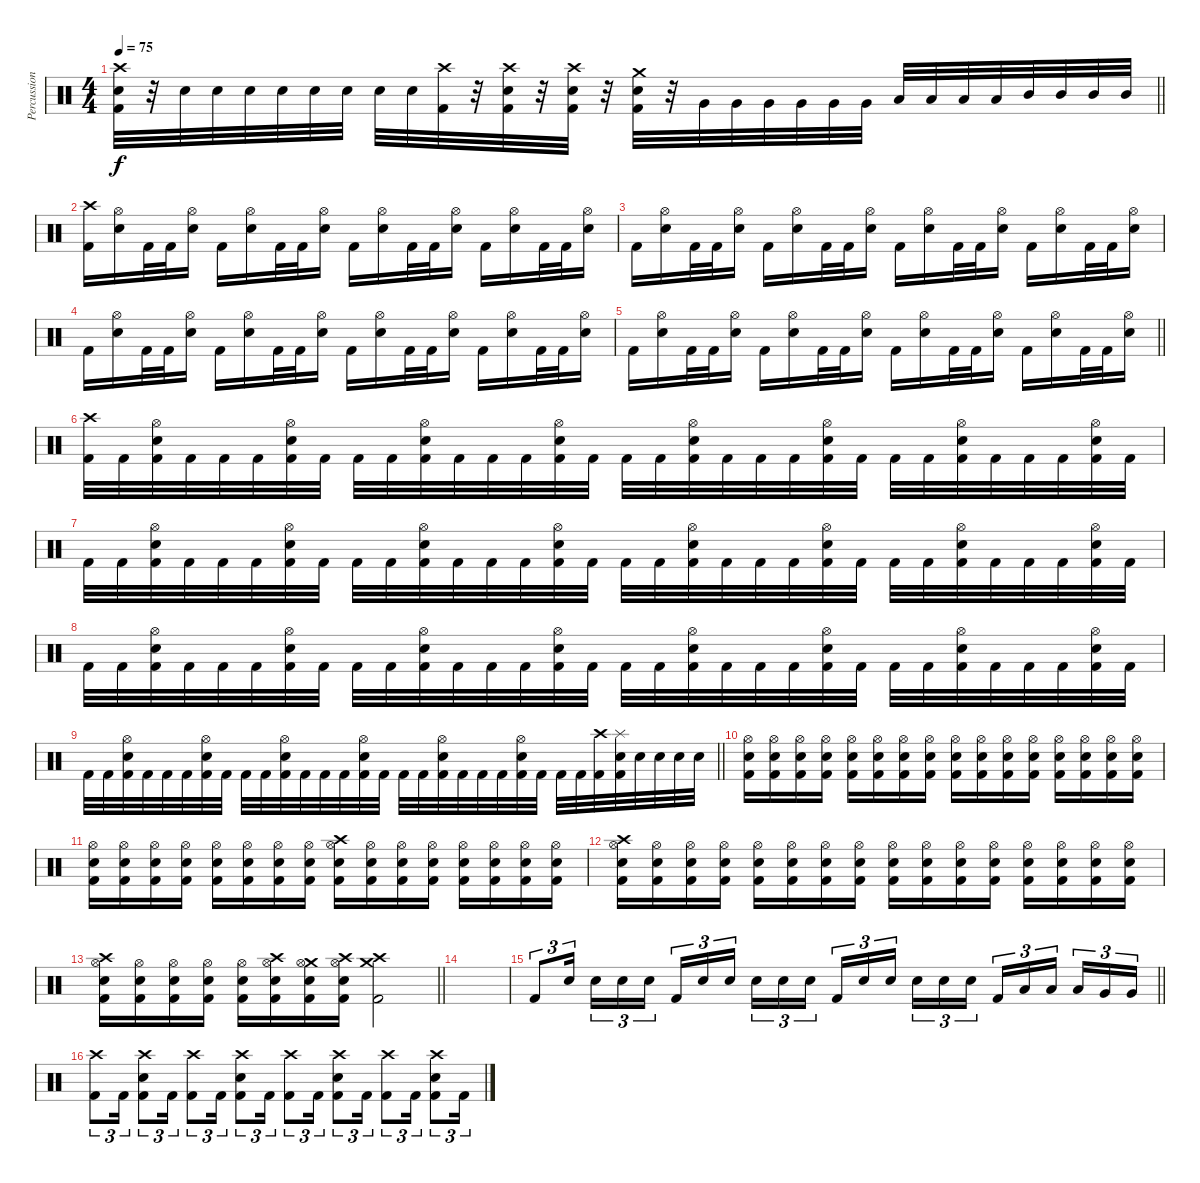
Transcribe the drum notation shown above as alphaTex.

\track ("Percussion" "Percussion") {instrument percussion}
\staff {score}
\articulation defaults
\ts (4 4)
\tempo 75
\clef neutral
\barLineRight lightlight
\ks c
("Crash high (hit)" "Electric Snare (hit)" "Kick (hit) 2").32{dy f} r.32 "Electric Snare (hit)".32 "Electric Snare (hit)".32 "Electric Snare (hit)".32 "Electric Snare (hit)".32 "Electric Snare (hit)".32 "Electric Snare (hit)".32 "Electric Snare (hit)".32 "Electric Snare (hit)".32 ("Crash high (hit)" "Kick (hit) 2").32 r.32 ("Crash high (hit)" "Electric Snare (hit)" "Kick (hit) 2").32 r.32 ("Crash high (hit)" "Electric Snare (hit)" "Kick (hit) 2").32 r.32 ("Crash medium (hit)" "Electric Snare (hit)" "Kick (hit) 2").32 r.32 "Very Low Tom (hit)".32 "Very Low Tom (hit)".32 "Very Low Tom (hit)".32 "Very Low Tom (hit)".32 "Very Low Tom (hit)".32 "Very Low Tom (hit)".32 "Low Tom (hit)".32 "Low Tom (hit)".32 "Low Tom (hit)".32 "Low Tom (hit)".32 "Mid Tom (hit)".32 "Mid Tom (hit)".32 "Mid Tom (hit)".32 "Mid Tom (hit)".32 |
\section ("" "")
("Crash high (hit)" "Kick (hit) 2").16 ("Hi-Hat (open)" "Electric Snare (hit)").16 "Kick (hit) 2".32 "Kick (hit) 2".32 ("Hi-Hat (open)" "Electric Snare (hit)").16 "Kick (hit) 2".16 ("Hi-Hat (open)" "Electric Snare (hit)").16 "Kick (hit) 2".32 "Kick (hit) 2".32 ("Hi-Hat (open)" "Electric Snare (hit)").16 "Kick (hit) 2".16 ("Hi-Hat (open)" "Electric Snare (hit)").16 "Kick (hit) 2".32 "Kick (hit) 2".32 ("Hi-Hat (open)" "Electric Snare (hit)").16 "Kick (hit) 2".16 ("Hi-Hat (open)" "Electric Snare (hit)").16 "Kick (hit) 2".32 "Kick (hit) 2".32 ("Hi-Hat (open)" "Electric Snare (hit)").16 |
"Kick (hit) 2".16 ("Hi-Hat (open)" "Electric Snare (hit)").16 "Kick (hit) 2".32 "Kick (hit) 2".32 ("Hi-Hat (open)" "Electric Snare (hit)").16 "Kick (hit) 2".16 ("Hi-Hat (open)" "Electric Snare (hit)").16 "Kick (hit) 2".32 "Kick (hit) 2".32 ("Hi-Hat (open)" "Electric Snare (hit)").16 "Kick (hit) 2".16 ("Hi-Hat (open)" "Electric Snare (hit)").16 "Kick (hit) 2".32 "Kick (hit) 2".32 ("Hi-Hat (open)" "Electric Snare (hit)").16 "Kick (hit) 2".16 ("Hi-Hat (open)" "Electric Snare (hit)").16 "Kick (hit) 2".32 "Kick (hit) 2".32 ("Hi-Hat (open)" "Electric Snare (hit)").16 |
"Kick (hit) 2".16 ("Hi-Hat (open)" "Electric Snare (hit)").16 "Kick (hit) 2".32 "Kick (hit) 2".32 ("Hi-Hat (open)" "Electric Snare (hit)").16 "Kick (hit) 2".16 ("Hi-Hat (open)" "Electric Snare (hit)").16 "Kick (hit) 2".32 "Kick (hit) 2".32 ("Hi-Hat (open)" "Electric Snare (hit)").16 "Kick (hit) 2".16 ("Hi-Hat (open)" "Electric Snare (hit)").16 "Kick (hit) 2".32 "Kick (hit) 2".32 ("Hi-Hat (open)" "Electric Snare (hit)").16 "Kick (hit) 2".16 ("Hi-Hat (open)" "Electric Snare (hit)").16 "Kick (hit) 2".32 "Kick (hit) 2".32 ("Hi-Hat (open)" "Electric Snare (hit)").16 |
\barLineRight lightlight "Kick (hit) 2".16
("Hi-Hat (open)" "Electric Snare (hit)").16 "Kick (hit) 2".32 "Kick (hit) 2".32 ("Hi-Hat (open)" "Electric Snare (hit)").16 "Kick (hit) 2".16 ("Hi-Hat (open)" "Electric Snare (hit)").16 "Kick (hit) 2".32 "Kick (hit) 2".32 ("Hi-Hat (open)" "Electric Snare (hit)").16 "Kick (hit) 2".16 ("Hi-Hat (open)" "Electric Snare (hit)").16 "Kick (hit) 2".32 "Kick (hit) 2".32 ("Hi-Hat (open)" "Electric Snare (hit)").16 "Kick (hit) 2".16 ("Hi-Hat (open)" "Electric Snare (hit)").16 "Kick (hit) 2".32 "Kick (hit) 2".32 ("Hi-Hat (open)" "Electric Snare (hit)").16 |
\section ("" "")
("Crash high (hit)" "Kick (hit) 2").32 "Kick (hit) 2".32 ("Hi-Hat (open)" "Electric Snare (hit)" "Kick (hit) 2").32 "Kick (hit) 2".32 "Kick (hit) 2".32 "Kick (hit) 2".32 ("Hi-Hat (open)" "Electric Snare (hit)" "Kick (hit) 2").32 "Kick (hit) 2".32 "Kick (hit) 2".32 "Kick (hit) 2".32 ("Hi-Hat (open)" "Electric Snare (hit)" "Kick (hit) 2").32 "Kick (hit) 2".32 "Kick (hit) 2".32 "Kick (hit) 2".32 ("Hi-Hat (open)" "Electric Snare (hit)" "Kick (hit) 2").32 "Kick (hit) 2".32 "Kick (hit) 2".32 "Kick (hit) 2".32 ("Hi-Hat (open)" "Electric Snare (hit)" "Kick (hit) 2").32 "Kick (hit) 2".32 "Kick (hit) 2".32 "Kick (hit) 2".32 ("Hi-Hat (open)" "Electric Snare (hit)" "Kick (hit) 2").32 "Kick (hit) 2".32 "Kick (hit) 2".32 "Kick (hit) 2".32 ("Hi-Hat (open)" "Electric Snare (hit)" "Kick (hit) 2").32 "Kick (hit) 2".32 "Kick (hit) 2".32 "Kick (hit) 2".32 ("Hi-Hat (open)" "Electric Snare (hit)" "Kick (hit) 2").32 "Kick (hit) 2".32 |
"Kick (hit) 2".32 "Kick (hit) 2".32 ("Hi-Hat (open)" "Electric Snare (hit)" "Kick (hit) 2").32 "Kick (hit) 2".32 "Kick (hit) 2".32 "Kick (hit) 2".32 ("Hi-Hat (open)" "Electric Snare (hit)" "Kick (hit) 2").32 "Kick (hit) 2".32 "Kick (hit) 2".32 "Kick (hit) 2".32 ("Hi-Hat (open)" "Electric Snare (hit)" "Kick (hit) 2").32 "Kick (hit) 2".32 "Kick (hit) 2".32 "Kick (hit) 2".32 ("Hi-Hat (open)" "Electric Snare (hit)" "Kick (hit) 2").32 "Kick (hit) 2".32 "Kick (hit) 2".32 "Kick (hit) 2".32 ("Hi-Hat (open)" "Electric Snare (hit)" "Kick (hit) 2").32 "Kick (hit) 2".32 "Kick (hit) 2".32 "Kick (hit) 2".32 ("Hi-Hat (open)" "Electric Snare (hit)" "Kick (hit) 2").32 "Kick (hit) 2".32 "Kick (hit) 2".32 "Kick (hit) 2".32 ("Hi-Hat (open)" "Electric Snare (hit)" "Kick (hit) 2").32 "Kick (hit) 2".32 "Kick (hit) 2".32 "Kick (hit) 2".32 ("Hi-Hat (open)" "Electric Snare (hit)" "Kick (hit) 2").32 "Kick (hit) 2".32 |
"Kick (hit) 2".32 "Kick (hit) 2".32 ("Hi-Hat (open)" "Electric Snare (hit)" "Kick (hit) 2").32 "Kick (hit) 2".32 "Kick (hit) 2".32 "Kick (hit) 2".32 ("Hi-Hat (open)" "Electric Snare (hit)" "Kick (hit) 2").32 "Kick (hit) 2".32 "Kick (hit) 2".32 "Kick (hit) 2".32 ("Hi-Hat (open)" "Electric Snare (hit)" "Kick (hit) 2").32 "Kick (hit) 2".32 "Kick (hit) 2".32 "Kick (hit) 2".32 ("Hi-Hat (open)" "Electric Snare (hit)" "Kick (hit) 2").32 "Kick (hit) 2".32 "Kick (hit) 2".32 "Kick (hit) 2".32 ("Hi-Hat (open)" "Electric Snare (hit)" "Kick (hit) 2").32 "Kick (hit) 2".32 "Kick (hit) 2".32 "Kick (hit) 2".32 ("Hi-Hat (open)" "Electric Snare (hit)" "Kick (hit) 2").32 "Kick (hit) 2".32 "Kick (hit) 2".32 "Kick (hit) 2".32 ("Hi-Hat (open)" "Electric Snare (hit)" "Kick (hit) 2").32 "Kick (hit) 2".32 "Kick (hit) 2".32 "Kick (hit) 2".32 ("Hi-Hat (open)" "Electric Snare (hit)" "Kick (hit) 2").32 "Kick (hit) 2".32 |
\barLineRight lightlight "Kick (hit) 2".32 "Kick (hit) 2".32
("Hi-Hat (open)" "Electric Snare (hit)" "Kick (hit) 2").32 "Kick (hit) 2".32 "Kick (hit) 2".32 "Kick (hit) 2".32 ("Hi-Hat (open)" "Electric Snare (hit)" "Kick (hit) 2").32 "Kick (hit) 2".32 "Kick (hit) 2".32 "Kick (hit) 2".32 ("Hi-Hat (open)" "Electric Snare (hit)" "Kick (hit) 2").32 "Kick (hit) 2".32 "Kick (hit) 2".32 "Kick (hit) 2".32 ("Hi-Hat (open)" "Electric Snare (hit)" "Kick (hit) 2").32 "Kick (hit) 2".32 "Kick (hit) 2".32 "Kick (hit) 2".32 ("Hi-Hat (open)" "Electric Snare (hit)" "Kick (hit) 2").32 "Kick (hit) 2".32 "Kick (hit) 2".32 "Kick (hit) 2".32 ("Hi-Hat (open)" "Electric Snare (hit)" "Kick (hit) 2").32 "Kick (hit) 2".32 "Kick (hit) 2".32 "Kick (hit) 2".32 ("Crash high (hit)" "Kick (hit) 2").32 ("Splash (hit)" "Electric Snare (hit)" "Kick (hit) 2").32 "Electric Snare (hit)".32 "Electric Snare (hit)".32 "Electric Snare (hit)".32 "Electric Snare (hit)".32 |
\section ("" "")
("Hi-Hat (open)" "Electric Snare (hit)" "Kick (hit) 2").16 ("Hi-Hat (open)" "Electric Snare (hit)" "Kick (hit) 2").16 ("Hi-Hat (open)" "Electric Snare (hit)" "Kick (hit) 2").16 ("Hi-Hat (open)" "Electric Snare (hit)" "Kick (hit) 2").16 ("Hi-Hat (open)" "Electric Snare (hit)" "Kick (hit) 2").16 ("Hi-Hat (open)" "Electric Snare (hit)" "Kick (hit) 2").16 ("Hi-Hat (open)" "Electric Snare (hit)" "Kick (hit) 2").16 ("Hi-Hat (open)" "Electric Snare (hit)" "Kick (hit) 2").16 ("Hi-Hat (open)" "Electric Snare (hit)" "Kick (hit) 2").16 ("Hi-Hat (open)" "Electric Snare (hit)" "Kick (hit) 2").16 ("Hi-Hat (open)" "Electric Snare (hit)" "Kick (hit) 2").16 ("Hi-Hat (open)" "Electric Snare (hit)" "Kick (hit) 2").16 ("Hi-Hat (open)" "Electric Snare (hit)" "Kick (hit) 2").16 ("Hi-Hat (open)" "Electric Snare (hit)" "Kick (hit) 2").16 ("Hi-Hat (open)" "Electric Snare (hit)" "Kick (hit) 2").16 ("Hi-Hat (open)" "Electric Snare (hit)" "Kick (hit) 2").16 |
("Hi-Hat (open)" "Electric Snare (hit)" "Kick (hit) 2").16 ("Hi-Hat (open)" "Electric Snare (hit)" "Kick (hit) 2").16 ("Hi-Hat (open)" "Electric Snare (hit)" "Kick (hit) 2").16 ("Hi-Hat (open)" "Electric Snare (hit)" "Kick (hit) 2").16 ("Hi-Hat (open)" "Electric Snare (hit)" "Kick (hit) 2").16 ("Hi-Hat (open)" "Electric Snare (hit)" "Kick (hit) 2").16 ("Hi-Hat (open)" "Electric Snare (hit)" "Kick (hit) 2").16 ("Hi-Hat (open)" "Electric Snare (hit)" "Kick (hit) 2").16 ("Crash high (hit)" "Hi-Hat (open)" "Electric Snare (hit)" "Kick (hit) 2").16 ("Hi-Hat (open)" "Electric Snare (hit)" "Kick (hit) 2").16 ("Hi-Hat (open)" "Electric Snare (hit)" "Kick (hit) 2").16 ("Hi-Hat (open)" "Electric Snare (hit)" "Kick (hit) 2").16 ("Hi-Hat (open)" "Electric Snare (hit)" "Kick (hit) 2").16 ("Hi-Hat (open)" "Electric Snare (hit)" "Kick (hit) 2").16 ("Hi-Hat (open)" "Electric Snare (hit)" "Kick (hit) 2").16 ("Hi-Hat (open)" "Electric Snare (hit)" "Kick (hit) 2").16 |
("Crash high (hit)" "Hi-Hat (open)" "Electric Snare (hit)" "Kick (hit) 2").16 ("Hi-Hat (open)" "Electric Snare (hit)" "Kick (hit) 2").16 ("Hi-Hat (open)" "Electric Snare (hit)" "Kick (hit) 2").16 ("Hi-Hat (open)" "Electric Snare (hit)" "Kick (hit) 2").16 ("Hi-Hat (open)" "Electric Snare (hit)" "Kick (hit) 2").16 ("Hi-Hat (open)" "Electric Snare (hit)" "Kick (hit) 2").16 ("Hi-Hat (open)" "Electric Snare (hit)" "Kick (hit) 2").16 ("Hi-Hat (open)" "Electric Snare (hit)" "Kick (hit) 2").16 ("Hi-Hat (open)" "Electric Snare (hit)" "Kick (hit) 2").16 ("Hi-Hat (open)" "Electric Snare (hit)" "Kick (hit) 2").16 ("Hi-Hat (open)" "Electric Snare (hit)" "Kick (hit) 2").16 ("Hi-Hat (open)" "Electric Snare (hit)" "Kick (hit) 2").16 ("Hi-Hat (open)" "Electric Snare (hit)" "Kick (hit) 2").16 ("Hi-Hat (open)" "Electric Snare (hit)" "Kick (hit) 2").16 ("Hi-Hat (open)" "Electric Snare (hit)" "Kick (hit) 2").16 ("Hi-Hat (open)" "Electric Snare (hit)" "Kick (hit) 2").16 |
\barLineRight lightlight
("Crash high (hit)" "Hi-Hat (open)" "Electric Snare (hit)" "Kick (hit) 2").16 ("Hi-Hat (open)" "Electric Snare (hit)" "Kick (hit) 2").16 ("Hi-Hat (open)" "Electric Snare (hit)" "Kick (hit) 2").16 ("Hi-Hat (open)" "Electric Snare (hit)" "Kick (hit) 2").16 ("Hi-Hat (open)" "Electric Snare (hit)" "Kick (hit) 2").16 ("Crash high (hit)" "Hi-Hat (open)" "Electric Snare (hit)" "Kick (hit) 2").16 ("Crash medium (hit)" "Hi-Hat (open)" "Electric Snare (hit)" "Kick (hit) 2").16 ("Crash high (hit)" "Hi-Hat (open)" "Electric Snare (hit)" "Kick (hit) 2").16 ("Crash high (hit)" "Crash medium (hit)" "Kick (hit) 2").2 |
|
\barLineRight lightlight "Kick (hit) 2".8{tu (3 2)} "Electric Snare (hit)".16{tu (3 2) beam splitsecondary} "Electric Snare (hit)".16{tu (3 2)} "Electric Snare (hit)".16{tu (3 2)} "Electric Snare (hit)".16{tu (3 2)} "Kick (hit) 2".16{tu (3 2)} "Electric Snare (hit)".16{tu (3 2)} "Electric Snare (hit)".16{tu (3 2) beam splitsecondary} "Electric Snare (hit)".16{tu (3 2)} "Electric Snare (hit)".16{tu (3 2)} "Electric Snare (hit)".16{tu (3 2)} "Kick (hit) 2".16{tu (3 2)} "Electric Snare (hit)".16{tu (3 2)} "Electric Snare (hit)".16{tu (3 2) beam splitsecondary} "Electric Snare (hit)".16{tu (3 2)} "Electric Snare (hit)".16{tu (3 2)} "Electric Snare (hit)".16{tu (3 2)} "Kick (hit) 2".16{tu (3 2)} "Low Tom (hit)".16{tu (3 2)} "Low Tom (hit)".16{tu (3 2) beam splitsecondary} "Low Tom (hit)".16{tu (3 2)} "Very Low Tom (hit)".16{tu (3 2)} "Very Low Tom (hit)".16{tu (3 2)}
|
\section ("" "")
("Crash high (hit)" "Kick (hit) 2").8{tu (3 2)} "Kick (hit) 2".16{tu (3 2)} ("Crash high (hit)" "Electric Snare (hit)" "Kick (hit) 2").8{tu (3 2)} "Kick (hit) 2".16{tu (3 2)} ("Crash high (hit)" "Kick (hit) 2").8{tu (3 2)} "Kick (hit) 2".16{tu (3 2)} ("Crash high (hit)" "Electric Snare (hit)" "Kick (hit) 2").8{tu (3 2)} "Kick (hit) 2".16{tu (3 2)} ("Crash high (hit)" "Kick (hit) 2").8{tu (3 2)} "Kick (hit) 2".16{tu (3 2)} ("Crash high (hit)" "Electric Snare (hit)" "Kick (hit) 2").8{tu (3 2)} "Kick (hit) 2".16{tu (3 2)} ("Crash high (hit)" "Kick (hit) 2").8{tu (3 2)} "Kick (hit) 2".16{tu (3 2)} ("Crash high (hit)" "Electric Snare (hit)" "Kick (hit) 2").8{tu (3 2)} "Kick (hit) 2".16{tu (3 2)}
